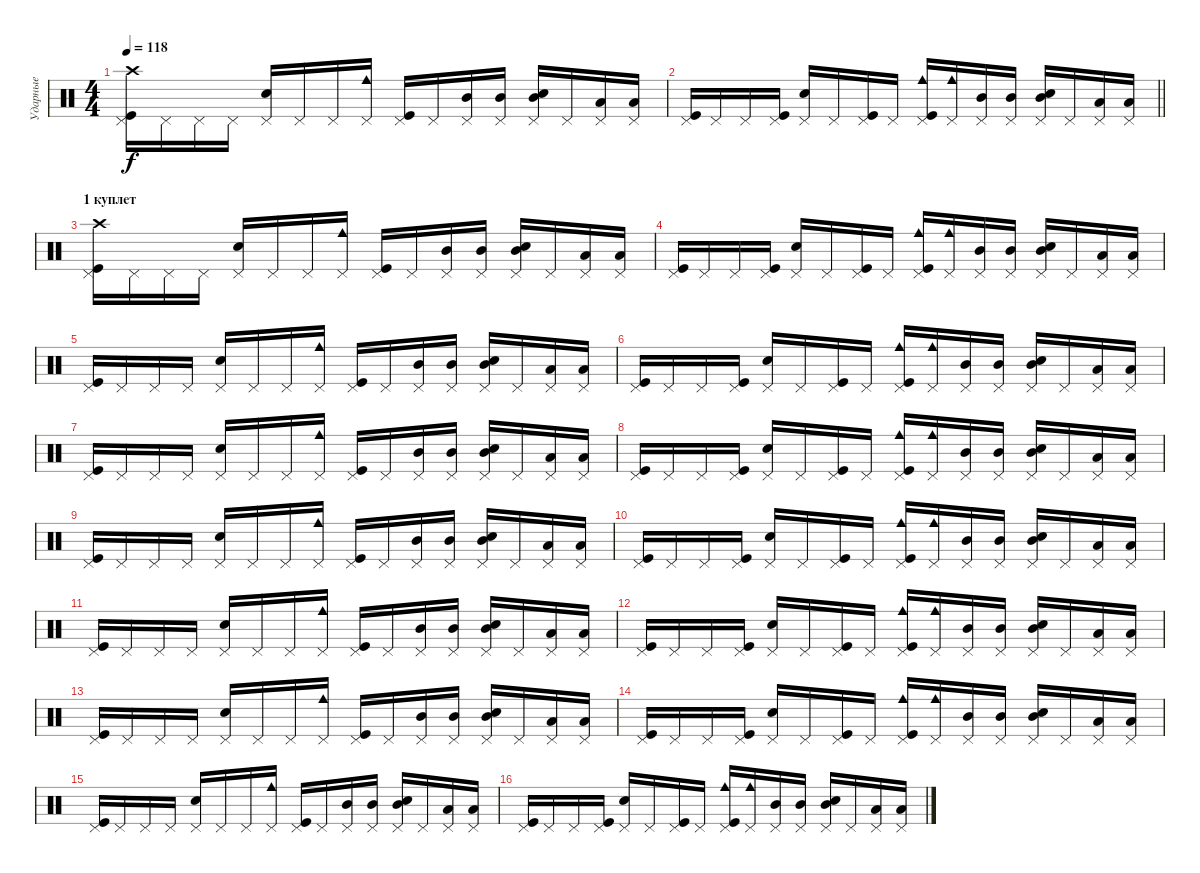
\track ("Ударные" "Ударные") {instrument percussion}
\staff {score}
\articulation defaults
\ts (4 4)
\tempo 118
\clef neutral
\ks c
("Pedal Hi-Hat (hit)" "Kick (hit)" "Crash high (hit)").16{dy f} "Pedal Hi-Hat (hit)".16 "Pedal Hi-Hat (hit)".16 "Pedal Hi-Hat (hit)".16 ("Pedal Hi-Hat (hit)" "Snare (hit) 2").16 "Pedal Hi-Hat (hit)".16 "Pedal Hi-Hat (hit)".16 ("Pedal Hi-Hat (hit)" "Cowbell medium (hit)").16 ("Pedal Hi-Hat (hit)" "Kick (hit)").16 "Pedal Hi-Hat (hit)".16 ("Pedal Hi-Hat (hit)" "Mid Tom (hit)").16 ("Pedal Hi-Hat (hit)" "Mid Tom (hit)").16 ("Pedal Hi-Hat (hit)" "Mid Tom (hit)" "Snare (hit) 2").16 "Pedal Hi-Hat (hit)".16 ("Pedal Hi-Hat (hit)" "Low Tom (hit)").16 ("Pedal Hi-Hat (hit)" "Low Tom (hit)").16 |
\barLineRight lightlight
("Pedal Hi-Hat (hit)" "Kick (hit)").16 "Pedal Hi-Hat (hit)".16 "Pedal Hi-Hat (hit)".16 ("Pedal Hi-Hat (hit)" "Kick (hit)").16 ("Pedal Hi-Hat (hit)" "Snare (hit) 2").16 "Pedal Hi-Hat (hit)".16 ("Pedal Hi-Hat (hit)" "Kick (hit)").16 "Pedal Hi-Hat (hit)".16 ("Pedal Hi-Hat (hit)" "Kick (hit)" "Cowbell medium (hit)").16 ("Pedal Hi-Hat (hit)" "Cowbell medium (hit)").16 ("Pedal Hi-Hat (hit)" "Mid Tom (hit)").16 ("Pedal Hi-Hat (hit)" "Mid Tom (hit)").16 ("Pedal Hi-Hat (hit)" "Mid Tom (hit)" "Snare (hit) 2").16 "Pedal Hi-Hat (hit)".16 ("Pedal Hi-Hat (hit)" "Low Tom (hit)").16 ("Pedal Hi-Hat (hit)" "Low Tom (hit)").16 |
\section ("" "1 куплет")
("Pedal Hi-Hat (hit)" "Kick (hit)" "Crash high (hit)").16 "Pedal Hi-Hat (hit)".16 "Pedal Hi-Hat (hit)".16 "Pedal Hi-Hat (hit)".16 ("Pedal Hi-Hat (hit)" "Snare (hit) 2").16 "Pedal Hi-Hat (hit)".16 "Pedal Hi-Hat (hit)".16 ("Pedal Hi-Hat (hit)" "Cowbell medium (hit)").16 ("Pedal Hi-Hat (hit)" "Kick (hit)").16 "Pedal Hi-Hat (hit)".16 ("Pedal Hi-Hat (hit)" "Mid Tom (hit)").16 ("Pedal Hi-Hat (hit)" "Mid Tom (hit)").16 ("Pedal Hi-Hat (hit)" "Mid Tom (hit)" "Snare (hit) 2").16 "Pedal Hi-Hat (hit)".16 ("Pedal Hi-Hat (hit)" "Low Tom (hit)").16 ("Pedal Hi-Hat (hit)" "Low Tom (hit)").16 |
("Pedal Hi-Hat (hit)" "Kick (hit)").16 "Pedal Hi-Hat (hit)".16 "Pedal Hi-Hat (hit)".16 ("Pedal Hi-Hat (hit)" "Kick (hit)").16 ("Pedal Hi-Hat (hit)" "Snare (hit) 2").16 "Pedal Hi-Hat (hit)".16 ("Pedal Hi-Hat (hit)" "Kick (hit)").16 "Pedal Hi-Hat (hit)".16 ("Pedal Hi-Hat (hit)" "Kick (hit)" "Cowbell medium (hit)").16 ("Pedal Hi-Hat (hit)" "Cowbell medium (hit)").16 ("Pedal Hi-Hat (hit)" "Mid Tom (hit)").16 ("Pedal Hi-Hat (hit)" "Mid Tom (hit)").16 ("Pedal Hi-Hat (hit)" "Mid Tom (hit)" "Snare (hit) 2").16 "Pedal Hi-Hat (hit)".16 ("Pedal Hi-Hat (hit)" "Low Tom (hit)").16 ("Pedal Hi-Hat (hit)" "Low Tom (hit)").16 |
("Pedal Hi-Hat (hit)" "Kick (hit)").16 "Pedal Hi-Hat (hit)".16 "Pedal Hi-Hat (hit)".16 "Pedal Hi-Hat (hit)".16 ("Pedal Hi-Hat (hit)" "Snare (hit) 2").16 "Pedal Hi-Hat (hit)".16 "Pedal Hi-Hat (hit)".16 ("Pedal Hi-Hat (hit)" "Cowbell medium (hit)").16 ("Pedal Hi-Hat (hit)" "Kick (hit)").16 "Pedal Hi-Hat (hit)".16 ("Pedal Hi-Hat (hit)" "Mid Tom (hit)").16 ("Pedal Hi-Hat (hit)" "Mid Tom (hit)").16 ("Pedal Hi-Hat (hit)" "Mid Tom (hit)" "Snare (hit) 2").16 "Pedal Hi-Hat (hit)".16 ("Pedal Hi-Hat (hit)" "Low Tom (hit)").16 ("Pedal Hi-Hat (hit)" "Low Tom (hit)").16 |
("Pedal Hi-Hat (hit)" "Kick (hit)").16 "Pedal Hi-Hat (hit)".16 "Pedal Hi-Hat (hit)".16 ("Pedal Hi-Hat (hit)" "Kick (hit)").16 ("Pedal Hi-Hat (hit)" "Snare (hit) 2").16 "Pedal Hi-Hat (hit)".16 ("Pedal Hi-Hat (hit)" "Kick (hit)").16 "Pedal Hi-Hat (hit)".16 ("Pedal Hi-Hat (hit)" "Kick (hit)" "Cowbell medium (hit)").16 ("Pedal Hi-Hat (hit)" "Cowbell medium (hit)").16 ("Pedal Hi-Hat (hit)" "Mid Tom (hit)").16 ("Pedal Hi-Hat (hit)" "Mid Tom (hit)").16 ("Pedal Hi-Hat (hit)" "Mid Tom (hit)" "Snare (hit) 2").16 "Pedal Hi-Hat (hit)".16 ("Pedal Hi-Hat (hit)" "Low Tom (hit)").16 ("Pedal Hi-Hat (hit)" "Low Tom (hit)").16 |
("Pedal Hi-Hat (hit)" "Kick (hit)").16 "Pedal Hi-Hat (hit)".16 "Pedal Hi-Hat (hit)".16 "Pedal Hi-Hat (hit)".16 ("Pedal Hi-Hat (hit)" "Snare (hit) 2").16 "Pedal Hi-Hat (hit)".16 "Pedal Hi-Hat (hit)".16 ("Pedal Hi-Hat (hit)" "Cowbell medium (hit)").16 ("Pedal Hi-Hat (hit)" "Kick (hit)").16 "Pedal Hi-Hat (hit)".16 ("Pedal Hi-Hat (hit)" "Mid Tom (hit)").16 ("Pedal Hi-Hat (hit)" "Mid Tom (hit)").16 ("Pedal Hi-Hat (hit)" "Mid Tom (hit)" "Snare (hit) 2").16 "Pedal Hi-Hat (hit)".16 ("Pedal Hi-Hat (hit)" "Low Tom (hit)").16 ("Pedal Hi-Hat (hit)" "Low Tom (hit)").16 |
("Pedal Hi-Hat (hit)" "Kick (hit)").16 "Pedal Hi-Hat (hit)".16 "Pedal Hi-Hat (hit)".16 ("Pedal Hi-Hat (hit)" "Kick (hit)").16 ("Pedal Hi-Hat (hit)" "Snare (hit) 2").16 "Pedal Hi-Hat (hit)".16 ("Pedal Hi-Hat (hit)" "Kick (hit)").16 "Pedal Hi-Hat (hit)".16 ("Pedal Hi-Hat (hit)" "Kick (hit)" "Cowbell medium (hit)").16 ("Pedal Hi-Hat (hit)" "Cowbell medium (hit)").16 ("Pedal Hi-Hat (hit)" "Mid Tom (hit)").16 ("Pedal Hi-Hat (hit)" "Mid Tom (hit)").16 ("Pedal Hi-Hat (hit)" "Mid Tom (hit)" "Snare (hit) 2").16 "Pedal Hi-Hat (hit)".16 ("Pedal Hi-Hat (hit)" "Low Tom (hit)").16 ("Pedal Hi-Hat (hit)" "Low Tom (hit)").16 |
("Pedal Hi-Hat (hit)" "Kick (hit)").16 "Pedal Hi-Hat (hit)".16 "Pedal Hi-Hat (hit)".16 "Pedal Hi-Hat (hit)".16 ("Pedal Hi-Hat (hit)" "Snare (hit) 2").16 "Pedal Hi-Hat (hit)".16 "Pedal Hi-Hat (hit)".16 ("Pedal Hi-Hat (hit)" "Cowbell medium (hit)").16 ("Pedal Hi-Hat (hit)" "Kick (hit)").16 "Pedal Hi-Hat (hit)".16 ("Pedal Hi-Hat (hit)" "Mid Tom (hit)").16 ("Pedal Hi-Hat (hit)" "Mid Tom (hit)").16 ("Pedal Hi-Hat (hit)" "Mid Tom (hit)" "Snare (hit) 2").16 "Pedal Hi-Hat (hit)".16 ("Pedal Hi-Hat (hit)" "Low Tom (hit)").16 ("Pedal Hi-Hat (hit)" "Low Tom (hit)").16 |
("Pedal Hi-Hat (hit)" "Kick (hit)").16 "Pedal Hi-Hat (hit)".16 "Pedal Hi-Hat (hit)".16 ("Pedal Hi-Hat (hit)" "Kick (hit)").16 ("Pedal Hi-Hat (hit)" "Snare (hit) 2").16 "Pedal Hi-Hat (hit)".16 ("Pedal Hi-Hat (hit)" "Kick (hit)").16 "Pedal Hi-Hat (hit)".16 ("Pedal Hi-Hat (hit)" "Kick (hit)" "Cowbell medium (hit)").16 ("Pedal Hi-Hat (hit)" "Cowbell medium (hit)").16 ("Pedal Hi-Hat (hit)" "Mid Tom (hit)").16 ("Pedal Hi-Hat (hit)" "Mid Tom (hit)").16 ("Pedal Hi-Hat (hit)" "Mid Tom (hit)" "Snare (hit) 2").16 "Pedal Hi-Hat (hit)".16 ("Pedal Hi-Hat (hit)" "Low Tom (hit)").16 ("Pedal Hi-Hat (hit)" "Low Tom (hit)").16 |
("Pedal Hi-Hat (hit)" "Kick (hit)").16 "Pedal Hi-Hat (hit)".16 "Pedal Hi-Hat (hit)".16 "Pedal Hi-Hat (hit)".16 ("Pedal Hi-Hat (hit)" "Snare (hit) 2").16 "Pedal Hi-Hat (hit)".16 "Pedal Hi-Hat (hit)".16 ("Pedal Hi-Hat (hit)" "Cowbell medium (hit)").16 ("Pedal Hi-Hat (hit)" "Kick (hit)").16 "Pedal Hi-Hat (hit)".16 ("Pedal Hi-Hat (hit)" "Mid Tom (hit)").16 ("Pedal Hi-Hat (hit)" "Mid Tom (hit)").16 ("Pedal Hi-Hat (hit)" "Mid Tom (hit)" "Snare (hit) 2").16 "Pedal Hi-Hat (hit)".16 ("Pedal Hi-Hat (hit)" "Low Tom (hit)").16 ("Pedal Hi-Hat (hit)" "Low Tom (hit)").16 |
("Pedal Hi-Hat (hit)" "Kick (hit)").16 "Pedal Hi-Hat (hit)".16 "Pedal Hi-Hat (hit)".16 ("Pedal Hi-Hat (hit)" "Kick (hit)").16 ("Pedal Hi-Hat (hit)" "Snare (hit) 2").16 "Pedal Hi-Hat (hit)".16 ("Pedal Hi-Hat (hit)" "Kick (hit)").16 "Pedal Hi-Hat (hit)".16 ("Pedal Hi-Hat (hit)" "Kick (hit)" "Cowbell medium (hit)").16 ("Pedal Hi-Hat (hit)" "Cowbell medium (hit)").16 ("Pedal Hi-Hat (hit)" "Mid Tom (hit)").16 ("Pedal Hi-Hat (hit)" "Mid Tom (hit)").16 ("Pedal Hi-Hat (hit)" "Mid Tom (hit)" "Snare (hit) 2").16 "Pedal Hi-Hat (hit)".16 ("Pedal Hi-Hat (hit)" "Low Tom (hit)").16 ("Pedal Hi-Hat (hit)" "Low Tom (hit)").16 |
("Pedal Hi-Hat (hit)" "Kick (hit)").16 "Pedal Hi-Hat (hit)".16 "Pedal Hi-Hat (hit)".16 "Pedal Hi-Hat (hit)".16 ("Pedal Hi-Hat (hit)" "Snare (hit) 2").16 "Pedal Hi-Hat (hit)".16 "Pedal Hi-Hat (hit)".16 ("Pedal Hi-Hat (hit)" "Cowbell medium (hit)").16 ("Pedal Hi-Hat (hit)" "Kick (hit)").16 "Pedal Hi-Hat (hit)".16 ("Pedal Hi-Hat (hit)" "Mid Tom (hit)").16 ("Pedal Hi-Hat (hit)" "Mid Tom (hit)").16 ("Pedal Hi-Hat (hit)" "Mid Tom (hit)" "Snare (hit) 2").16 "Pedal Hi-Hat (hit)".16 ("Pedal Hi-Hat (hit)" "Low Tom (hit)").16 ("Pedal Hi-Hat (hit)" "Low Tom (hit)").16 |
("Pedal Hi-Hat (hit)" "Kick (hit)").16 "Pedal Hi-Hat (hit)".16 "Pedal Hi-Hat (hit)".16 ("Pedal Hi-Hat (hit)" "Kick (hit)").16 ("Pedal Hi-Hat (hit)" "Snare (hit) 2").16 "Pedal Hi-Hat (hit)".16 ("Pedal Hi-Hat (hit)" "Kick (hit)").16 "Pedal Hi-Hat (hit)".16 ("Pedal Hi-Hat (hit)" "Kick (hit)" "Cowbell medium (hit)").16 ("Pedal Hi-Hat (hit)" "Cowbell medium (hit)").16 ("Pedal Hi-Hat (hit)" "Mid Tom (hit)").16 ("Pedal Hi-Hat (hit)" "Mid Tom (hit)").16 ("Pedal Hi-Hat (hit)" "Mid Tom (hit)" "Snare (hit) 2").16 "Pedal Hi-Hat (hit)".16 ("Pedal Hi-Hat (hit)" "Low Tom (hit)").16 ("Pedal Hi-Hat (hit)" "Low Tom (hit)").16 |
("Pedal Hi-Hat (hit)" "Kick (hit)").16 "Pedal Hi-Hat (hit)".16 "Pedal Hi-Hat (hit)".16 "Pedal Hi-Hat (hit)".16 ("Pedal Hi-Hat (hit)" "Snare (hit) 2").16 "Pedal Hi-Hat (hit)".16 "Pedal Hi-Hat (hit)".16 ("Pedal Hi-Hat (hit)" "Cowbell medium (hit)").16 ("Pedal Hi-Hat (hit)" "Kick (hit)").16 "Pedal Hi-Hat (hit)".16 ("Pedal Hi-Hat (hit)" "Mid Tom (hit)").16 ("Pedal Hi-Hat (hit)" "Mid Tom (hit)").16 ("Pedal Hi-Hat (hit)" "Mid Tom (hit)" "Snare (hit) 2").16 "Pedal Hi-Hat (hit)".16 ("Pedal Hi-Hat (hit)" "Low Tom (hit)").16 ("Pedal Hi-Hat (hit)" "Low Tom (hit)").16 |
("Pedal Hi-Hat (hit)" "Kick (hit)").16 "Pedal Hi-Hat (hit)".16 "Pedal Hi-Hat (hit)".16 ("Pedal Hi-Hat (hit)" "Kick (hit)").16 ("Pedal Hi-Hat (hit)" "Snare (hit) 2").16 "Pedal Hi-Hat (hit)".16 ("Pedal Hi-Hat (hit)" "Kick (hit)").16 "Pedal Hi-Hat (hit)".16 ("Pedal Hi-Hat (hit)" "Kick (hit)" "Cowbell medium (hit)").16 ("Pedal Hi-Hat (hit)" "Cowbell medium (hit)").16 ("Pedal Hi-Hat (hit)" "Mid Tom (hit)").16 ("Pedal Hi-Hat (hit)" "Mid Tom (hit)").16 ("Pedal Hi-Hat (hit)" "Mid Tom (hit)" "Snare (hit) 2").16 "Pedal Hi-Hat (hit)".16 ("Pedal Hi-Hat (hit)" "Low Tom (hit)").16 ("Pedal Hi-Hat (hit)" "Low Tom (hit)").16
